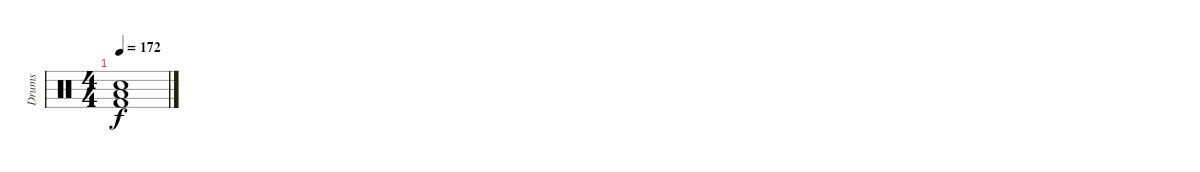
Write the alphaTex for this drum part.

\track ("Drums" "Drums") {instrument percussion}
\staff {score}
\articulation defaults
\ts (4 4)
\tempo 172
\clef neutral
\ks c
("Snare (hit) 2" "Low Floor Tom (hit)" "Kick (hit) 2").1{dy f}
